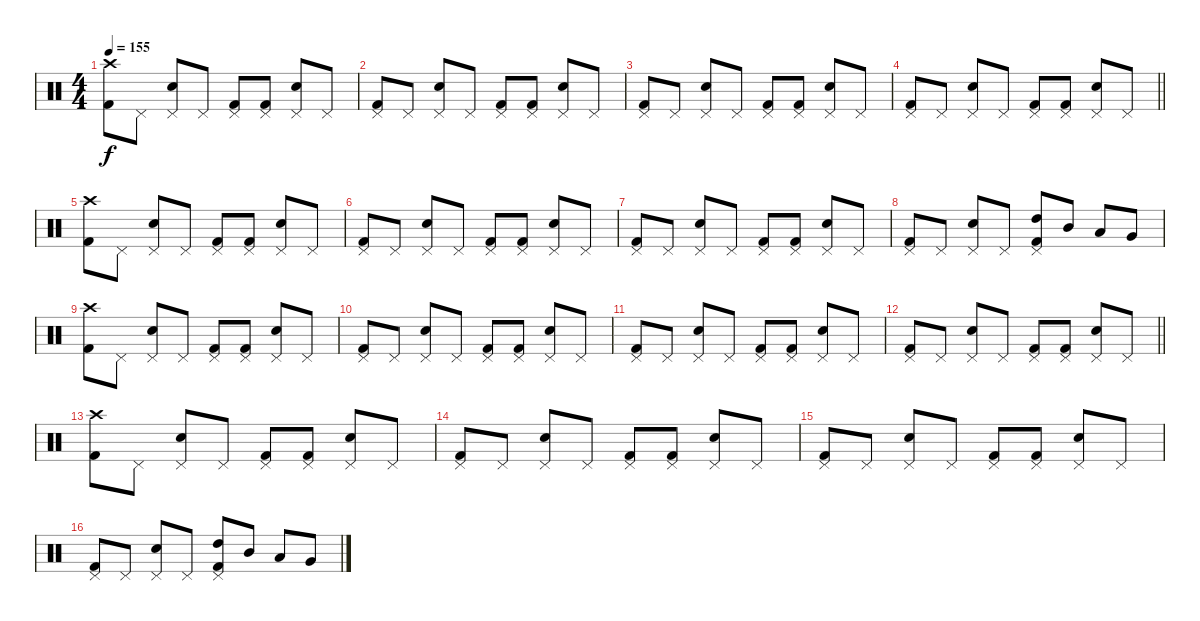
\track "" {instrument percussion}
\staff {score}
\articulation defaults
\ts (4 4)
\tempo 155
\clef neutral
\ks c
("Crash high (hit)" "Kick (hit) 2").8{dy f} "Pedal Hi-Hat (hit)".8 ("Pedal Hi-Hat (hit)" "Electric Snare (hit)").8 "Pedal Hi-Hat (hit)".8 ("Pedal Hi-Hat (hit)" "Kick (hit) 2").8 ("Pedal Hi-Hat (hit)" "Kick (hit) 2").8 ("Pedal Hi-Hat (hit)" "Electric Snare (hit)").8 "Pedal Hi-Hat (hit)".8 |
("Pedal Hi-Hat (hit)" "Kick (hit) 2").8 "Pedal Hi-Hat (hit)".8 ("Pedal Hi-Hat (hit)" "Electric Snare (hit)").8 "Pedal Hi-Hat (hit)".8 ("Pedal Hi-Hat (hit)" "Kick (hit) 2").8 ("Pedal Hi-Hat (hit)" "Kick (hit) 2").8 ("Pedal Hi-Hat (hit)" "Electric Snare (hit)").8 "Pedal Hi-Hat (hit)".8 |
("Pedal Hi-Hat (hit)" "Kick (hit) 2").8 "Pedal Hi-Hat (hit)".8 ("Pedal Hi-Hat (hit)" "Electric Snare (hit)").8 "Pedal Hi-Hat (hit)".8 ("Pedal Hi-Hat (hit)" "Kick (hit) 2").8 ("Pedal Hi-Hat (hit)" "Kick (hit) 2").8 ("Pedal Hi-Hat (hit)" "Electric Snare (hit)").8 "Pedal Hi-Hat (hit)".8 |
\barLineRight lightlight
("Pedal Hi-Hat (hit)" "Kick (hit) 2").8 "Pedal Hi-Hat (hit)".8 ("Pedal Hi-Hat (hit)" "Electric Snare (hit)").8 "Pedal Hi-Hat (hit)".8 ("Pedal Hi-Hat (hit)" "Kick (hit) 2").8 ("Pedal Hi-Hat (hit)" "Kick (hit) 2").8 ("Pedal Hi-Hat (hit)" "Electric Snare (hit)").8 "Pedal Hi-Hat (hit)".8 |
\section ("" "")
("Crash high (hit)" "Kick (hit) 2").8 "Pedal Hi-Hat (hit)".8 ("Pedal Hi-Hat (hit)" "Electric Snare (hit)").8 "Pedal Hi-Hat (hit)".8 ("Pedal Hi-Hat (hit)" "Kick (hit) 2").8 ("Pedal Hi-Hat (hit)" "Kick (hit) 2").8 ("Pedal Hi-Hat (hit)" "Electric Snare (hit)").8 "Pedal Hi-Hat (hit)".8 |
("Pedal Hi-Hat (hit)" "Kick (hit) 2").8 "Pedal Hi-Hat (hit)".8 ("Pedal Hi-Hat (hit)" "Electric Snare (hit)").8 "Pedal Hi-Hat (hit)".8 ("Pedal Hi-Hat (hit)" "Kick (hit) 2").8 ("Pedal Hi-Hat (hit)" "Kick (hit) 2").8 ("Pedal Hi-Hat (hit)" "Electric Snare (hit)").8 "Pedal Hi-Hat (hit)".8 |
("Pedal Hi-Hat (hit)" "Kick (hit) 2").8 "Pedal Hi-Hat (hit)".8 ("Pedal Hi-Hat (hit)" "Electric Snare (hit)").8 "Pedal Hi-Hat (hit)".8 ("Pedal Hi-Hat (hit)" "Kick (hit) 2").8 ("Pedal Hi-Hat (hit)" "Kick (hit) 2").8 ("Pedal Hi-Hat (hit)" "Electric Snare (hit)").8 "Pedal Hi-Hat (hit)".8 |
("Pedal Hi-Hat (hit)" "Kick (hit) 2").8 "Pedal Hi-Hat (hit)".8 ("Pedal Hi-Hat (hit)" "Electric Snare (hit)").8 "Pedal Hi-Hat (hit)".8 ("Pedal Hi-Hat (hit)" "High Tom (hit)" "Kick (hit) 2").8 "Mid Tom (hit)".8 "Low Tom (hit)".8 "Very Low Tom (hit)".8 |
("Crash high (hit)" "Kick (hit) 2").8 "Pedal Hi-Hat (hit)".8 ("Pedal Hi-Hat (hit)" "Electric Snare (hit)").8 "Pedal Hi-Hat (hit)".8 ("Pedal Hi-Hat (hit)" "Kick (hit) 2").8 ("Pedal Hi-Hat (hit)" "Kick (hit) 2").8 ("Pedal Hi-Hat (hit)" "Electric Snare (hit)").8 "Pedal Hi-Hat (hit)".8 |
("Pedal Hi-Hat (hit)" "Kick (hit) 2").8 "Pedal Hi-Hat (hit)".8 ("Pedal Hi-Hat (hit)" "Electric Snare (hit)").8 "Pedal Hi-Hat (hit)".8 ("Pedal Hi-Hat (hit)" "Kick (hit) 2").8 ("Pedal Hi-Hat (hit)" "Kick (hit) 2").8 ("Pedal Hi-Hat (hit)" "Electric Snare (hit)").8 "Pedal Hi-Hat (hit)".8 |
("Pedal Hi-Hat (hit)" "Kick (hit) 2").8 "Pedal Hi-Hat (hit)".8 ("Pedal Hi-Hat (hit)" "Electric Snare (hit)").8 "Pedal Hi-Hat (hit)".8 ("Pedal Hi-Hat (hit)" "Kick (hit) 2").8 ("Pedal Hi-Hat (hit)" "Kick (hit) 2").8 ("Pedal Hi-Hat (hit)" "Electric Snare (hit)").8 "Pedal Hi-Hat (hit)".8 |
\barLineRight lightlight
("Pedal Hi-Hat (hit)" "Kick (hit) 2").8 "Pedal Hi-Hat (hit)".8 ("Pedal Hi-Hat (hit)" "Electric Snare (hit)").8 "Pedal Hi-Hat (hit)".8 ("Pedal Hi-Hat (hit)" "Kick (hit) 2").8 ("Pedal Hi-Hat (hit)" "Kick (hit) 2").8 ("Pedal Hi-Hat (hit)" "Electric Snare (hit)").8 "Pedal Hi-Hat (hit)".8 |
("Crash high (hit)" "Kick (hit) 2").8 "Pedal Hi-Hat (hit)".8 ("Pedal Hi-Hat (hit)" "Electric Snare (hit)").8 "Pedal Hi-Hat (hit)".8 ("Pedal Hi-Hat (hit)" "Kick (hit) 2").8 ("Pedal Hi-Hat (hit)" "Kick (hit) 2").8 ("Pedal Hi-Hat (hit)" "Electric Snare (hit)").8 "Pedal Hi-Hat (hit)".8 |
("Pedal Hi-Hat (hit)" "Kick (hit) 2").8 "Pedal Hi-Hat (hit)".8 ("Pedal Hi-Hat (hit)" "Electric Snare (hit)").8 "Pedal Hi-Hat (hit)".8 ("Pedal Hi-Hat (hit)" "Kick (hit) 2").8 ("Pedal Hi-Hat (hit)" "Kick (hit) 2").8 ("Pedal Hi-Hat (hit)" "Electric Snare (hit)").8 "Pedal Hi-Hat (hit)".8 |
("Pedal Hi-Hat (hit)" "Kick (hit) 2").8 "Pedal Hi-Hat (hit)".8 ("Pedal Hi-Hat (hit)" "Electric Snare (hit)").8 "Pedal Hi-Hat (hit)".8 ("Pedal Hi-Hat (hit)" "Kick (hit) 2").8 ("Pedal Hi-Hat (hit)" "Kick (hit) 2").8 ("Pedal Hi-Hat (hit)" "Electric Snare (hit)").8 "Pedal Hi-Hat (hit)".8 |
("Pedal Hi-Hat (hit)" "Kick (hit) 2").8 "Pedal Hi-Hat (hit)".8 ("Pedal Hi-Hat (hit)" "Electric Snare (hit)").8 "Pedal Hi-Hat (hit)".8 ("Pedal Hi-Hat (hit)" "High Tom (hit)" "Kick (hit) 2").8 "Mid Tom (hit)".8 "Low Tom (hit)".8 "Very Low Tom (hit)".8
